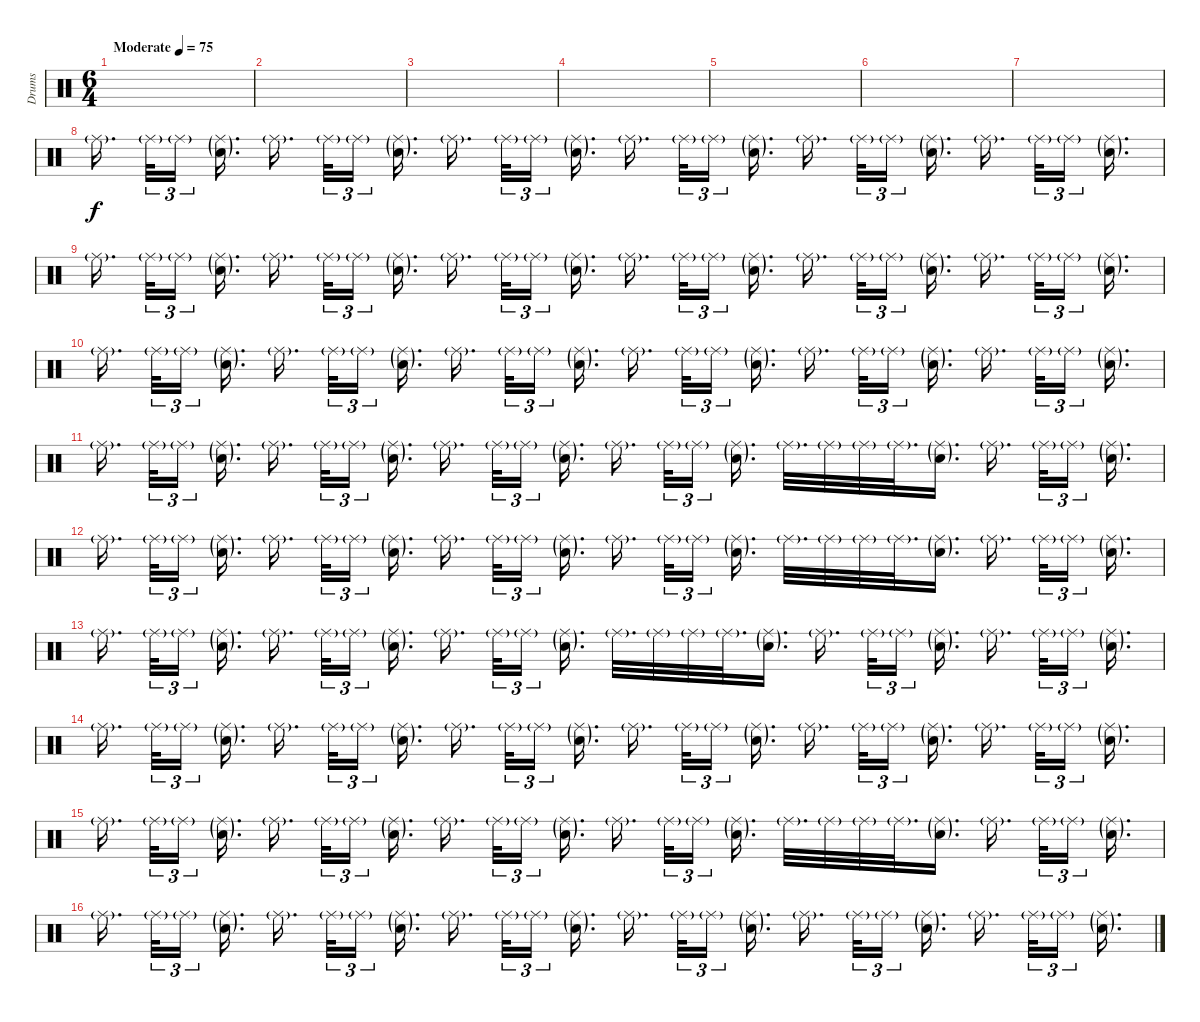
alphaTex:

\track ("Drums" "Drums") {instrument percussion}
\staff {score}
\articulation defaults
\ts (6 4)
\tempo (75 "Moderate")
\clef neutral
\ks c
|
|
|
|
|
|
|
"Ride (middle)"{g}.16{d volume 1 beam splitsecondary} "Ride (middle)"{g}.32{tu (3 2) volume 16} "Ride (middle)"{g}.16{tu (3 2) beam splitsecondary} ("Ride (middle)"{g} "Snare (hit) 2"{g}).16{d} "Ride (middle)"{g}.16{d beam splitsecondary} "Ride (middle)"{g}.32{tu (3 2)} "Ride (middle)"{g}.16{tu (3 2) beam splitsecondary} ("Ride (middle)"{g} "Snare (hit) 2"{g}).16{d} "Ride (middle)"{g}.16{d beam splitsecondary} "Ride (middle)"{g}.32{tu (3 2)} "Ride (middle)"{g}.16{tu (3 2) beam splitsecondary} ("Ride (middle)"{g} "Snare (hit) 2"{g}).16{d} "Ride (middle)"{g}.16{d beam splitsecondary} "Ride (middle)"{g}.32{tu (3 2)} "Ride (middle)"{g}.16{tu (3 2) beam splitsecondary} ("Ride (middle)"{g} "Snare (hit) 2"{g}).16{d} "Ride (middle)"{g}.16{d beam splitsecondary} "Ride (middle)"{g}.32{tu (3 2)} "Ride (middle)"{g}.16{tu (3 2) beam splitsecondary} ("Ride (middle)"{g} "Snare (hit) 2"{g}).16{d} "Ride (middle)"{g}.16{d beam splitsecondary} "Ride (middle)"{g}.32{tu (3 2)} "Ride (middle)"{g}.16{tu (3 2) beam splitsecondary} ("Ride (middle)"{g} "Snare (hit) 2"{g}).16{d} |
"Ride (middle)"{g}.16{d beam splitsecondary} "Ride (middle)"{g}.32{tu (3 2)} "Ride (middle)"{g}.16{tu (3 2) beam splitsecondary} ("Ride (middle)"{g} "Snare (hit) 2"{g}).16{d} "Ride (middle)"{g}.16{d beam splitsecondary} "Ride (middle)"{g}.32{tu (3 2)} "Ride (middle)"{g}.16{tu (3 2) beam splitsecondary} ("Ride (middle)"{g} "Snare (hit) 2"{g}).16{d} "Ride (middle)"{g}.16{d beam splitsecondary} "Ride (middle)"{g}.32{tu (3 2)} "Ride (middle)"{g}.16{tu (3 2) beam splitsecondary} ("Ride (middle)"{g} "Snare (hit) 2"{g}).16{d} "Ride (middle)"{g}.16{d beam splitsecondary} "Ride (middle)"{g}.32{tu (3 2)} "Ride (middle)"{g}.16{tu (3 2) beam splitsecondary} ("Ride (middle)"{g} "Snare (hit) 2"{g}).16{d} "Ride (middle)"{g}.16{d beam splitsecondary} "Ride (middle)"{g}.32{tu (3 2)} "Ride (middle)"{g}.16{tu (3 2) beam splitsecondary} ("Ride (middle)"{g} "Snare (hit) 2"{g}).16{d} "Ride (middle)"{g}.16{d beam splitsecondary} "Ride (middle)"{g}.32{tu (3 2)} "Ride (middle)"{g}.16{tu (3 2) beam splitsecondary} ("Ride (middle)"{g} "Snare (hit) 2"{g}).16{d} |
"Ride (middle)"{g}.16{d beam splitsecondary} "Ride (middle)"{g}.32{tu (3 2)} "Ride (middle)"{g}.16{tu (3 2) beam splitsecondary} ("Ride (middle)"{g} "Snare (hit) 2"{g}).16{d} "Ride (middle)"{g}.16{d beam splitsecondary} "Ride (middle)"{g}.32{tu (3 2)} "Ride (middle)"{g}.16{tu (3 2) beam splitsecondary} ("Ride (middle)"{g} "Snare (hit) 2"{g}).16{d} "Ride (middle)"{g}.16{d beam splitsecondary} "Ride (middle)"{g}.32{tu (3 2)} "Ride (middle)"{g}.16{tu (3 2) beam splitsecondary} ("Ride (middle)"{g} "Snare (hit) 2"{g}).16{d} "Ride (middle)"{g}.16{d beam splitsecondary} "Ride (middle)"{g}.32{tu (3 2)} "Ride (middle)"{g}.16{tu (3 2) beam splitsecondary} ("Ride (middle)"{g} "Snare (hit) 2"{g}).16{d} "Ride (middle)"{g}.16{d beam splitsecondary} "Ride (middle)"{g}.32{tu (3 2)} "Ride (middle)"{g}.16{tu (3 2) beam splitsecondary} ("Ride (middle)"{g} "Snare (hit) 2"{g}).16{d} "Ride (middle)"{g}.16{d beam splitsecondary} "Ride (middle)"{g}.32{tu (3 2)} "Ride (middle)"{g}.16{tu (3 2) beam splitsecondary} ("Ride (middle)"{g} "Snare (hit) 2"{g}).16{d} |
"Ride (middle)"{g}.16{d beam splitsecondary} "Ride (middle)"{g}.32{tu (3 2)} "Ride (middle)"{g}.16{tu (3 2) beam splitsecondary} ("Ride (middle)"{g} "Snare (hit) 2"{g}).16{d} "Ride (middle)"{g}.16{d beam splitsecondary} "Ride (middle)"{g}.32{tu (3 2)} "Ride (middle)"{g}.16{tu (3 2) beam splitsecondary} ("Ride (middle)"{g} "Snare (hit) 2"{g}).16{d} "Ride (middle)"{g}.16{d beam splitsecondary} "Ride (middle)"{g}.32{tu (3 2)} "Ride (middle)"{g}.16{tu (3 2) beam splitsecondary} ("Ride (middle)"{g} "Snare (hit) 2"{g}).16{d} "Ride (middle)"{g}.16{d beam splitsecondary} "Ride (middle)"{g}.32{tu (3 2)} "Ride (middle)"{g}.16{tu (3 2) beam splitsecondary} ("Ride (middle)"{g} "Snare (hit) 2"{g}).16{d} "Ride (middle)"{g}.32{d} "Ride (middle)"{g}.32 "Ride (middle)"{g}.32 "Ride (middle)"{g}.32{d} ("Ride (middle)"{g} "Snare (hit) 2"{g}).16{d} "Ride (middle)"{g}.16{d beam splitsecondary} "Ride (middle)"{g}.32{tu (3 2)} "Ride (middle)"{g}.16{tu (3 2) beam splitsecondary} ("Ride (middle)"{g} "Snare (hit) 2"{g}).16{d} |
"Ride (middle)"{g}.16{d beam splitsecondary} "Ride (middle)"{g}.32{tu (3 2)} "Ride (middle)"{g}.16{tu (3 2) beam splitsecondary} ("Ride (middle)"{g} "Snare (hit) 2"{g}).16{d} "Ride (middle)"{g}.16{d beam splitsecondary} "Ride (middle)"{g}.32{tu (3 2)} "Ride (middle)"{g}.16{tu (3 2) beam splitsecondary} ("Ride (middle)"{g} "Snare (hit) 2"{g}).16{d} "Ride (middle)"{g}.16{d beam splitsecondary} "Ride (middle)"{g}.32{tu (3 2)} "Ride (middle)"{g}.16{tu (3 2) beam splitsecondary} ("Ride (middle)"{g} "Snare (hit) 2"{g}).16{d} "Ride (middle)"{g}.16{d beam splitsecondary} "Ride (middle)"{g}.32{tu (3 2)} "Ride (middle)"{g}.16{tu (3 2) beam splitsecondary} ("Ride (middle)"{g} "Snare (hit) 2"{g}).16{d} "Ride (middle)"{g}.32{d} "Ride (middle)"{g}.32 "Ride (middle)"{g}.32 "Ride (middle)"{g}.32{d} ("Ride (middle)"{g} "Snare (hit) 2"{g}).16{d} "Ride (middle)"{g}.16{d beam splitsecondary} "Ride (middle)"{g}.32{tu (3 2)} "Ride (middle)"{g}.16{tu (3 2) beam splitsecondary} ("Ride (middle)"{g} "Snare (hit) 2"{g}).16{d} |
"Ride (middle)"{g}.16{d beam splitsecondary} "Ride (middle)"{g}.32{tu (3 2)} "Ride (middle)"{g}.16{tu (3 2) beam splitsecondary} ("Ride (middle)"{g} "Snare (hit) 2"{g}).16{d} "Ride (middle)"{g}.16{d beam splitsecondary} "Ride (middle)"{g}.32{tu (3 2)} "Ride (middle)"{g}.16{tu (3 2) beam splitsecondary} ("Ride (middle)"{g} "Snare (hit) 2"{g}).16{d} "Ride (middle)"{g}.16{d beam splitsecondary} "Ride (middle)"{g}.32{tu (3 2)} "Ride (middle)"{g}.16{tu (3 2) beam splitsecondary} ("Ride (middle)"{g} "Snare (hit) 2"{g}).16{d} "Ride (middle)"{g}.32{d} "Ride (middle)"{g}.32 "Ride (middle)"{g}.32 "Ride (middle)"{g}.32{d} ("Ride (middle)"{g} "Snare (hit) 2"{g}).16{d} "Ride (middle)"{g}.16{d beam splitsecondary} "Ride (middle)"{g}.32{tu (3 2)} "Ride (middle)"{g}.16{tu (3 2) beam splitsecondary} ("Ride (middle)"{g} "Snare (hit) 2"{g}).16{d} "Ride (middle)"{g}.16{d beam splitsecondary} "Ride (middle)"{g}.32{tu (3 2)} "Ride (middle)"{g}.16{tu (3 2) beam splitsecondary} ("Ride (middle)"{g} "Snare (hit) 2"{g}).16{d} |
"Ride (middle)"{g}.16{d beam splitsecondary} "Ride (middle)"{g}.32{tu (3 2)} "Ride (middle)"{g}.16{tu (3 2) beam splitsecondary} ("Ride (middle)"{g} "Snare (hit) 2"{g}).16{d} "Ride (middle)"{g}.16{d beam splitsecondary} "Ride (middle)"{g}.32{tu (3 2)} "Ride (middle)"{g}.16{tu (3 2) beam splitsecondary} ("Ride (middle)"{g} "Snare (hit) 2"{g}).16{d} "Ride (middle)"{g}.16{d beam splitsecondary} "Ride (middle)"{g}.32{tu (3 2)} "Ride (middle)"{g}.16{tu (3 2) beam splitsecondary} ("Ride (middle)"{g} "Snare (hit) 2"{g}).16{d} "Ride (middle)"{g}.16{d beam splitsecondary} "Ride (middle)"{g}.32{tu (3 2)} "Ride (middle)"{g}.16{tu (3 2) beam splitsecondary} ("Ride (middle)"{g} "Snare (hit) 2"{g}).16{d} "Ride (middle)"{g}.16{d beam splitsecondary} "Ride (middle)"{g}.32{tu (3 2)} "Ride (middle)"{g}.16{tu (3 2) beam splitsecondary} ("Ride (middle)"{g} "Snare (hit) 2"{g}).16{d} "Ride (middle)"{g}.16{d beam splitsecondary} "Ride (middle)"{g}.32{tu (3 2)} "Ride (middle)"{g}.16{tu (3 2) beam splitsecondary} ("Ride (middle)"{g} "Snare (hit) 2"{g}).16{d} |
"Ride (middle)"{g}.16{d beam splitsecondary} "Ride (middle)"{g}.32{tu (3 2)} "Ride (middle)"{g}.16{tu (3 2) beam splitsecondary} ("Ride (middle)"{g} "Snare (hit) 2"{g}).16{d} "Ride (middle)"{g}.16{d beam splitsecondary} "Ride (middle)"{g}.32{tu (3 2)} "Ride (middle)"{g}.16{tu (3 2) beam splitsecondary} ("Ride (middle)"{g} "Snare (hit) 2"{g}).16{d} "Ride (middle)"{g}.16{d beam splitsecondary} "Ride (middle)"{g}.32{tu (3 2)} "Ride (middle)"{g}.16{tu (3 2) beam splitsecondary} ("Ride (middle)"{g} "Snare (hit) 2"{g}).16{d} "Ride (middle)"{g}.16{d beam splitsecondary} "Ride (middle)"{g}.32{tu (3 2)} "Ride (middle)"{g}.16{tu (3 2) beam splitsecondary} ("Ride (middle)"{g} "Snare (hit) 2"{g}).16{d} "Ride (middle)"{g}.32{d} "Ride (middle)"{g}.32 "Ride (middle)"{g}.32 "Ride (middle)"{g}.32{d} ("Ride (middle)"{g} "Snare (hit) 2"{g}).16{d} "Ride (middle)"{g}.16{d beam splitsecondary} "Ride (middle)"{g}.32{tu (3 2)} "Ride (middle)"{g}.16{tu (3 2) beam splitsecondary} ("Ride (middle)"{g} "Snare (hit) 2"{g}).16{d} |
"Ride (middle)"{g}.16{d beam splitsecondary} "Ride (middle)"{g}.32{tu (3 2)} "Ride (middle)"{g}.16{tu (3 2) beam splitsecondary} ("Ride (middle)"{g} "Snare (hit) 2"{g}).16{d} "Ride (middle)"{g}.16{d beam splitsecondary} "Ride (middle)"{g}.32{tu (3 2)} "Ride (middle)"{g}.16{tu (3 2) beam splitsecondary} ("Ride (middle)"{g} "Snare (hit) 2"{g}).16{d} "Ride (middle)"{g}.16{d beam splitsecondary} "Ride (middle)"{g}.32{tu (3 2)} "Ride (middle)"{g}.16{tu (3 2) beam splitsecondary} ("Ride (middle)"{g} "Snare (hit) 2"{g}).16{d} "Ride (middle)"{g}.16{d beam splitsecondary} "Ride (middle)"{g}.32{tu (3 2)} "Ride (middle)"{g}.16{tu (3 2) beam splitsecondary} ("Ride (middle)"{g} "Snare (hit) 2"{g}).16{d} "Ride (middle)"{g}.16{d beam splitsecondary} "Ride (middle)"{g}.32{tu (3 2)} "Ride (middle)"{g}.16{tu (3 2) beam splitsecondary} ("Ride (middle)"{g} "Snare (hit) 2"{g}).16{d} "Ride (middle)"{g}.16{d beam splitsecondary} "Ride (middle)"{g}.32{tu (3 2)} "Ride (middle)"{g}.16{tu (3 2) beam splitsecondary} ("Ride (middle)"{g} "Snare (hit) 2"{g}).16{d}
